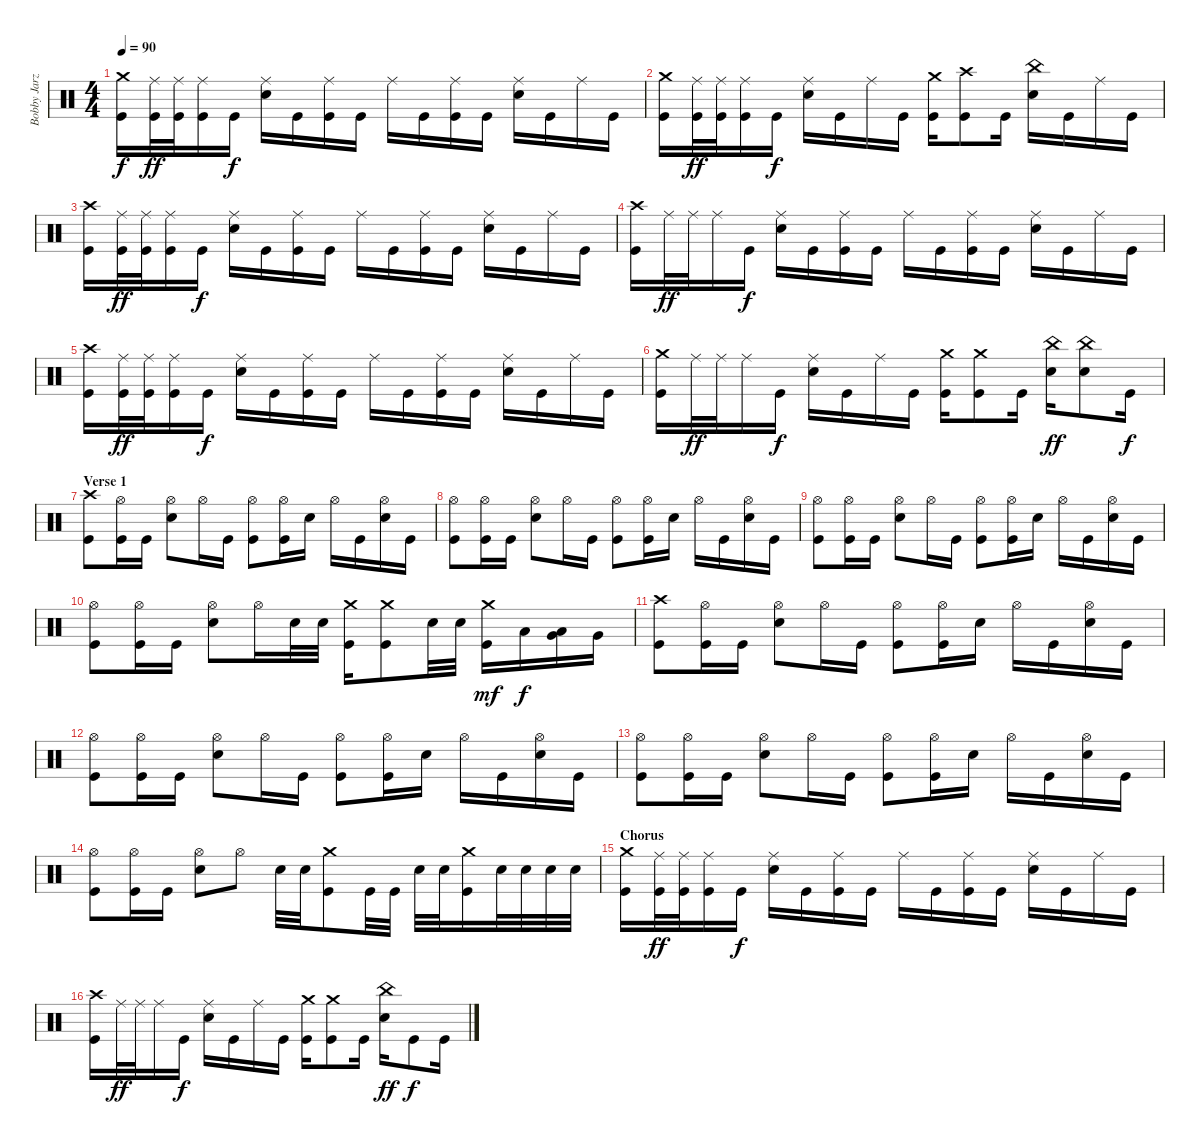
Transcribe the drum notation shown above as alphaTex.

\track ("Bobby Jarzombek" "Bobby Jarz") {instrument percussion}
\staff {score}
\articulation defaults
\ts (4 4)
\tempo 90
\clef neutral
\ks c
("Crash medium (hit)" "Kick (hit)").16{dy f} ("Ride (middle)" "Kick (hit)").32{dy ff} ("Ride (middle)" "Kick (hit)").32 ("Ride (middle)" "Kick (hit)").16 "Kick (hit)".16{dy f} ("Ride (middle)" "Electric Snare (hit)").16 "Kick (hit)".16 ("Ride (middle)" "Kick (hit)").16 "Kick (hit)".16 "Ride (middle)".16 "Kick (hit)".16 ("Ride (middle)" "Kick (hit)").16 "Kick (hit)".16 ("Ride (middle)" "Electric Snare (hit)").16 "Kick (hit)".16 "Ride (middle)".16 "Kick (hit)".16 |
("Crash medium (hit)" "Kick (hit)").16 ("Ride (middle)" "Kick (hit)").32{dy ff} ("Ride (middle)" "Kick (hit)").32 ("Ride (middle)" "Kick (hit)").16 "Kick (hit)".16{dy f} ("Ride (middle)" "Electric Snare (hit)").16 "Kick (hit)".16 "Ride (middle)".16 "Kick (hit)".16 ("Crash medium (hit)" "Kick (hit)").16 ("Crash high (hit)" "Kick (hit)").8 "Kick (hit)".16 ("China (hit)" "Electric Snare (hit)").16 "Kick (hit)".16 "Ride (middle)".16 "Kick (hit)".16 |
("Crash high (hit)" "Kick (hit)").16 ("Ride (middle)" "Kick (hit)").32{dy ff} ("Ride (middle)" "Kick (hit)").32 ("Ride (middle)" "Kick (hit)").16 "Kick (hit)".16{dy f} ("Ride (middle)" "Electric Snare (hit)").16 "Kick (hit)".16 ("Ride (middle)" "Kick (hit)").16 "Kick (hit)".16 "Ride (middle)".16 "Kick (hit)".16 ("Ride (middle)" "Kick (hit)").16 "Kick (hit)".16 ("Ride (middle)" "Electric Snare (hit)").16 "Kick (hit)".16 "Ride (middle)".16 "Kick (hit)".16 |
("Crash high (hit)" "Kick (hit)").16 "Ride (middle)".32{dy ff} "Ride (middle)".32 "Ride (middle)".16 "Kick (hit)".16{dy f} ("Ride (middle)" "Electric Snare (hit)").16 "Kick (hit)".16 ("Ride (middle)" "Kick (hit)").16 "Kick (hit)".16 "Ride (middle)".16 "Kick (hit)".16 ("Ride (middle)" "Kick (hit)").16 "Kick (hit)".16 ("Ride (middle)" "Electric Snare (hit)").16 "Kick (hit)".16 "Ride (middle)".16 "Kick (hit)".16 |
("Crash high (hit)" "Kick (hit)").16 ("Ride (middle)" "Kick (hit)").32{dy ff} ("Ride (middle)" "Kick (hit)").32 ("Ride (middle)" "Kick (hit)").16 "Kick (hit)".16{dy f} ("Ride (middle)" "Electric Snare (hit)").16 "Kick (hit)".16 ("Ride (middle)" "Kick (hit)").16 "Kick (hit)".16 "Ride (middle)".16 "Kick (hit)".16 ("Ride (middle)" "Kick (hit)").16 "Kick (hit)".16 ("Ride (middle)" "Electric Snare (hit)").16 "Kick (hit)".16 "Ride (middle)".16 "Kick (hit)".16 |
("Crash medium (hit)" "Kick (hit)").16 "Ride (middle)".32{dy ff} "Ride (middle)".32 "Ride (middle)".16 "Kick (hit)".16{dy f} ("Ride (middle)" "Electric Snare (hit)").16 "Kick (hit)".16 "Ride (middle)".16 "Kick (hit)".16 ("Crash medium (hit)" "Kick (hit)").16 ("Crash medium (hit)" "Kick (hit)").8 "Kick (hit)".16 ("China (hit)" "Electric Snare (hit)").16{dy ff} ("China (hit)" "Electric Snare (hit)").8 "Kick (hit)".16{dy f} |
\section ("" "Verse 1")
("Crash high (hit)" "Kick (hit)").8 ("Hi-Hat (open)" "Kick (hit)").16 "Kick (hit)".16 ("Hi-Hat (open)" "Electric Snare (hit)").8 "Hi-Hat (open)".16 "Kick (hit)".16 ("Hi-Hat (open)" "Kick (hit)").8 ("Hi-Hat (open)" "Kick (hit)").16 "Electric Snare (hit)".16 "Hi-Hat (open)".16 "Kick (hit)".16 ("Hi-Hat (open)" "Electric Snare (hit)").16 "Kick (hit)".16 |
("Hi-Hat (open)" "Kick (hit)").8 ("Hi-Hat (open)" "Kick (hit)").16 "Kick (hit)".16 ("Hi-Hat (open)" "Electric Snare (hit)").8 "Hi-Hat (open)".16 "Kick (hit)".16 ("Hi-Hat (open)" "Kick (hit)").8 ("Hi-Hat (open)" "Kick (hit)").16 "Electric Snare (hit)".16 "Hi-Hat (open)".16 "Kick (hit)".16 ("Hi-Hat (open)" "Electric Snare (hit)").16 "Kick (hit)".16 |
("Hi-Hat (open)" "Kick (hit)").8 ("Hi-Hat (open)" "Kick (hit)").16 "Kick (hit)".16 ("Hi-Hat (open)" "Electric Snare (hit)").8 "Hi-Hat (open)".16 "Kick (hit)".16 ("Hi-Hat (open)" "Kick (hit)").8 ("Hi-Hat (open)" "Kick (hit)").16 "Electric Snare (hit)".16 "Hi-Hat (open)".16 "Kick (hit)".16 ("Hi-Hat (open)" "Electric Snare (hit)").16 "Kick (hit)".16 |
("Hi-Hat (open)" "Kick (hit)").8 ("Hi-Hat (open)" "Kick (hit)").16 "Kick (hit)".16 ("Hi-Hat (open)" "Electric Snare (hit)").8 "Hi-Hat (open)".16 "Electric Snare (hit)".32 "Electric Snare (hit)".32 ("Crash medium (hit)" "Kick (hit)").16 ("Crash medium (hit)" "Kick (hit)").8 "Electric Snare (hit)".32 "Electric Snare (hit)".32 ("Crash medium (hit)" "Kick (hit)").16{dy mf} "Low Tom (hit)".16{dy f} ("Low Tom (hit)" "Very Low Tom (hit)").16 "Very Low Tom (hit)".16 |
("Crash high (hit)" "Kick (hit)").8 ("Hi-Hat (open)" "Kick (hit)").16 "Kick (hit)".16 ("Hi-Hat (open)" "Electric Snare (hit)").8 "Hi-Hat (open)".16 "Kick (hit)".16 ("Hi-Hat (open)" "Kick (hit)").8 ("Hi-Hat (open)" "Kick (hit)").16 "Electric Snare (hit)".16 "Hi-Hat (open)".16 "Kick (hit)".16 ("Hi-Hat (open)" "Electric Snare (hit)").16 "Kick (hit)".16 |
("Hi-Hat (open)" "Kick (hit)").8 ("Hi-Hat (open)" "Kick (hit)").16 "Kick (hit)".16 ("Hi-Hat (open)" "Electric Snare (hit)").8 "Hi-Hat (open)".16 "Kick (hit)".16 ("Hi-Hat (open)" "Kick (hit)").8 ("Hi-Hat (open)" "Kick (hit)").16 "Electric Snare (hit)".16 "Hi-Hat (open)".16 "Kick (hit)".16 ("Hi-Hat (open)" "Electric Snare (hit)").16 "Kick (hit)".16 |
("Hi-Hat (open)" "Kick (hit)").8 ("Hi-Hat (open)" "Kick (hit)").16 "Kick (hit)".16 ("Hi-Hat (open)" "Electric Snare (hit)").8 "Hi-Hat (open)".16 "Kick (hit)".16 ("Hi-Hat (open)" "Kick (hit)").8 ("Hi-Hat (open)" "Kick (hit)").16 "Electric Snare (hit)".16 "Hi-Hat (open)".16 "Kick (hit)".16 ("Hi-Hat (open)" "Electric Snare (hit)").16 "Kick (hit)".16 |
("Hi-Hat (open)" "Kick (hit)").8 ("Hi-Hat (open)" "Kick (hit)").16 "Kick (hit)".16 ("Hi-Hat (open)" "Electric Snare (hit)").8 "Hi-Hat (open)".8 "Electric Snare (hit)".32 "Electric Snare (hit)".32 ("Crash medium (hit)" "Kick (hit)").8 "Kick (hit)".32 "Kick (hit)".32 "Electric Snare (hit)".32 "Electric Snare (hit)".32 ("Crash medium (hit)" "Kick (hit)").16 "Electric Snare (hit)".32 "Electric Snare (hit)".32 "Electric Snare (hit)".32 "Electric Snare (hit)".32 |
\section ("" "Chorus")
("Crash medium (hit)" "Kick (hit)").16 ("Ride (middle)" "Kick (hit)").32{dy ff} ("Ride (middle)" "Kick (hit)").32 ("Ride (middle)" "Kick (hit)").16 "Kick (hit)".16{dy f} ("Ride (middle)" "Electric Snare (hit)").16 "Kick (hit)".16 ("Ride (middle)" "Kick (hit)").16 "Kick (hit)".16 "Ride (middle)".16 "Kick (hit)".16 ("Ride (middle)" "Kick (hit)").16 "Kick (hit)".16 ("Ride (middle)" "Electric Snare (hit)").16 "Kick (hit)".16 "Ride (middle)".16 "Kick (hit)".16 |
("Crash high (hit)" "Kick (hit)").16 "Ride (middle)".32{dy ff} "Ride (middle)".32 "Ride (middle)".16 "Kick (hit)".16{dy f} ("Ride (middle)" "Electric Snare (hit)").16 "Kick (hit)".16 "Ride (middle)".16 "Kick (hit)".16 ("Crash medium (hit)" "Kick (hit)").16 ("Crash medium (hit)" "Kick (hit)").8 "Kick (hit)".16 ("China (hit)" "Electric Snare (hit)").16{dy ff} "Kick (hit)".8{dy f} "Kick (hit)".16
